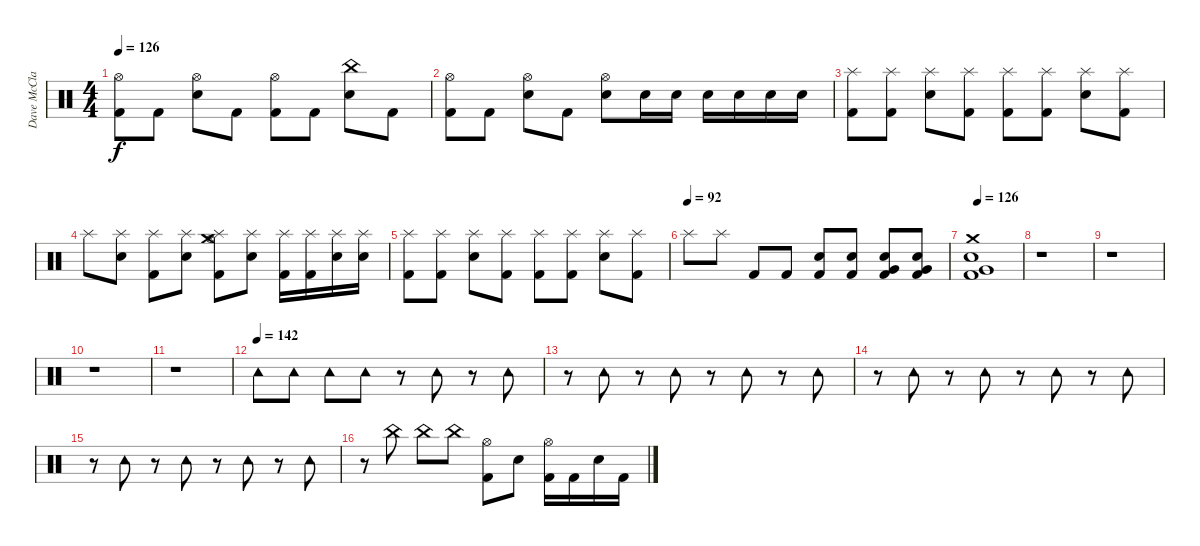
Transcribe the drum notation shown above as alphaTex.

\track ("Dave McClain" "Dave McCla") {instrument percussion}
\staff {score}
\articulation defaults
\ts (4 4)
\tempo 126
\clef neutral
\ks c
("Hi-Hat (open)" "Kick (hit) 2").8{dy f} "Kick (hit) 2".8 ("Hi-Hat (open)" "Electric Snare (hit)").8 "Kick (hit) 2".8 ("Hi-Hat (open)" "Kick (hit) 2").8 "Kick (hit) 2".8 ("China (hit)" "Electric Snare (hit)").8 "Kick (hit) 2".8 |
("Hi-Hat (open)" "Kick (hit) 2").8 "Kick (hit) 2".8 ("Hi-Hat (open)" "Electric Snare (hit)").8 "Kick (hit) 2".8 ("Hi-Hat (open)" "Electric Snare (hit)").8 "Electric Snare (hit)".16 "Electric Snare (hit)".16 "Electric Snare (hit)".16 "Electric Snare (hit)".16 "Electric Snare (hit)".16 "Electric Snare (hit)".16 |
("Splash (hit)" "Kick (hit) 2").8 ("Splash (hit)" "Kick (hit) 2").8 ("Splash (hit)" "Electric Snare (hit)").8 ("Splash (hit)" "Kick (hit) 2").8 ("Splash (hit)" "Kick (hit) 2").8 ("Splash (hit)" "Kick (hit) 2").8 ("Splash (hit)" "Electric Snare (hit)").8 ("Splash (hit)" "Kick (hit) 2").8 |
"Splash (hit)".8 ("Splash (hit)" "Electric Snare (hit)").8 ("Splash (hit)" "Kick (hit) 2").8 ("Splash (hit)" "Electric Snare (hit)").8 ("Splash (hit)" "Crash medium (hit)" "Hi-Hat (open)" "Kick (hit) 2").8 ("Splash (hit)" "Electric Snare (hit)").8 ("Splash (hit)" "Kick (hit) 2").16 ("Splash (hit)" "Kick (hit) 2").16 ("Splash (hit)" "Electric Snare (hit)").16 ("Splash (hit)" "Electric Snare (hit)").16 |
("Splash (hit)" "Kick (hit) 2").8 ("Splash (hit)" "Kick (hit) 2").8 ("Splash (hit)" "Electric Snare (hit)").8 ("Splash (hit)" "Kick (hit) 2").8 ("Splash (hit)" "Kick (hit) 2").8 ("Splash (hit)" "Kick (hit) 2").8 ("Splash (hit)" "Electric Snare (hit)").8 ("Splash (hit)" "Kick (hit) 2").8 |
\tempo (92)
"Splash (hit)".8 "Splash (hit)".8 "Kick (hit) 2".8 "Kick (hit) 2".8 ("Electric Snare (hit)" "Kick (hit) 2").8 ("Electric Snare (hit)" "Kick (hit) 2").8 ("Electric Snare (hit)" "Very Low Tom (hit)" "Kick (hit) 2").8 ("Electric Snare (hit)" "Very Low Tom (hit)" "Kick (hit) 2").8 |
\tempo 126
("Crash medium (hit)" "Very Low Tom (hit)" "Electric Snare (hit)" "Kick (hit) 2").1 |
r.1 |
r.1 |
r.1 |
r.1 |
\tempo (142)
"Tambourine (hit)".8 "Tambourine (hit)".8 "Tambourine (hit)".8 "Tambourine (hit)".8 r.8 "Tambourine (hit)".8 r.8 "Tambourine (hit)".8 |
r.8 "Tambourine (hit)".8 r.8 "Tambourine (hit)".8 r.8 "Tambourine (hit)".8 r.8 "Tambourine (hit)".8 |
r.8 "Tambourine (hit)".8 r.8 "Tambourine (hit)".8 r.8 "Tambourine (hit)".8 r.8 "Tambourine (hit)".8 |
r.8 "Tambourine (hit)".8 r.8 "Tambourine (hit)".8 r.8 "Tambourine (hit)".8 r.8 "Tambourine (hit)".8 |
r.8 "China (hit)".8 "China (hit)".8 "China (hit)".8 ("Hi-Hat (open)" "Kick (hit) 2").8 "Electric Snare (hit)".8 ("Hi-Hat (open)" "Kick (hit) 2").16 "Kick (hit) 2".16 "Electric Snare (hit)".16 "Kick (hit) 2".16
